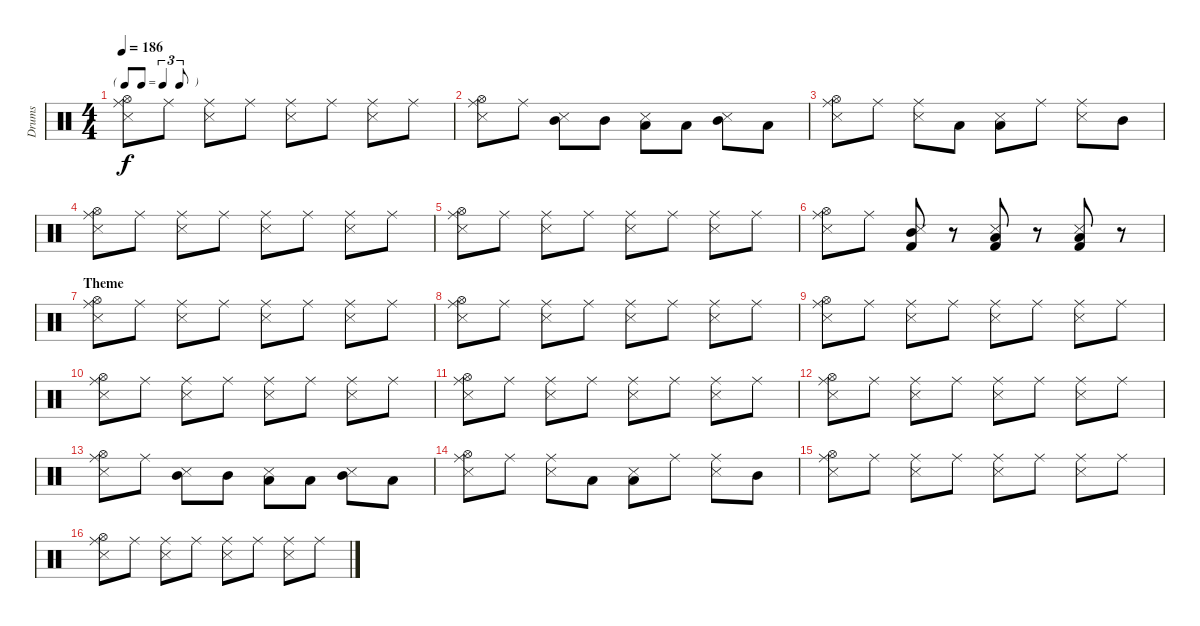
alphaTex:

\track ("Drums" "Drums") {instrument percussion}
\staff {score}
\articulation defaults
\ts (4 4)
\tf triplet8th
\tempo 186
\clef neutral
\ks c
("Hi-Hat (open)" "Ride (middle)" "Snare (side stick) 3").8{dy f} "Ride (middle)".8 ("Ride (middle)" "Snare (side stick) 3").8 "Ride (middle)".8 ("Ride (middle)" "Snare (side stick) 3").8 "Ride (middle)".8 ("Ride (middle)" "Snare (side stick) 3").8 "Ride (middle)".8 |
("Hi-Hat (open)" "Ride (middle)" "Snare (side stick) 3").8 "Ride (middle)".8 ("Mid Tom (hit)" "Snare (side stick) 3").8 "Mid Tom (hit)".8 ("Low Tom (hit)" "Snare (side stick) 3").8 "Low Tom (hit)".8 ("Mid Tom (hit)" "Snare (side stick) 3").8 "Low Tom (hit)".8 |
("Hi-Hat (open)" "Ride (middle)" "Snare (side stick) 3").8 "Ride (middle)".8 ("Ride (middle)" "Snare (side stick) 3").8 "Low Tom (hit)".8 ("Low Tom (hit)" "Snare (side stick) 3").8 "Ride (middle)".8 ("Ride (middle)" "Snare (side stick) 3").8 "Mid Tom (hit)".8 |
("Hi-Hat (open)" "Ride (middle)" "Snare (side stick) 3").8 "Ride (middle)".8 ("Ride (middle)" "Snare (side stick) 3").8 "Ride (middle)".8 ("Ride (middle)" "Snare (side stick) 3").8 "Ride (middle)".8 ("Ride (middle)" "Snare (side stick) 3").8 "Ride (middle)".8 |
("Hi-Hat (open)" "Ride (middle)" "Snare (side stick) 3").8 "Ride (middle)".8 ("Ride (middle)" "Snare (side stick) 3").8 "Ride (middle)".8 ("Ride (middle)" "Snare (side stick) 3").8 "Ride (middle)".8 ("Ride (middle)" "Snare (side stick) 3").8 "Ride (middle)".8 |
("Hi-Hat (open)" "Ride (middle)" "Snare (side stick) 3").8 "Ride (middle)".8 ("Mid Tom (hit)" "Snare (side stick) 3" "Kick (hit) 2").8 r.8 ("Low Tom (hit)" "Snare (side stick) 3" "Kick (hit) 2").8 r.8 ("Low Tom (hit)" "Snare (side stick) 3" "Kick (hit) 2").8 r.8 |
\section ("" "Theme")
("Hi-Hat (open)" "Ride (middle)" "Snare (side stick) 3").8 "Ride (middle)".8 ("Ride (middle)" "Snare (side stick) 3").8 "Ride (middle)".8 ("Ride (middle)" "Snare (side stick) 3").8 "Ride (middle)".8 ("Ride (middle)" "Snare (side stick) 3").8 "Ride (middle)".8 |
("Hi-Hat (open)" "Ride (middle)" "Snare (side stick) 3").8 "Ride (middle)".8 ("Ride (middle)" "Snare (side stick) 3").8 "Ride (middle)".8 ("Ride (middle)" "Snare (side stick) 3").8 "Ride (middle)".8 ("Ride (middle)" "Snare (side stick) 3").8 "Ride (middle)".8 |
("Hi-Hat (open)" "Ride (middle)" "Snare (side stick) 3").8 "Ride (middle)".8 ("Ride (middle)" "Snare (side stick) 3").8 "Ride (middle)".8 ("Ride (middle)" "Snare (side stick) 3").8 "Ride (middle)".8 ("Ride (middle)" "Snare (side stick) 3").8 "Ride (middle)".8 |
("Hi-Hat (open)" "Ride (middle)" "Snare (side stick) 3").8 "Ride (middle)".8 ("Ride (middle)" "Snare (side stick) 3").8 "Ride (middle)".8 ("Ride (middle)" "Snare (side stick) 3").8 "Ride (middle)".8 ("Ride (middle)" "Snare (side stick) 3").8 "Ride (middle)".8 |
("Hi-Hat (open)" "Ride (middle)" "Snare (side stick) 3").8 "Ride (middle)".8 ("Ride (middle)" "Snare (side stick) 3").8 "Ride (middle)".8 ("Ride (middle)" "Snare (side stick) 3").8 "Ride (middle)".8 ("Ride (middle)" "Snare (side stick) 3").8 "Ride (middle)".8 |
("Hi-Hat (open)" "Ride (middle)" "Snare (side stick) 3").8 "Ride (middle)".8 ("Ride (middle)" "Snare (side stick) 3").8 "Ride (middle)".8 ("Ride (middle)" "Snare (side stick) 3").8 "Ride (middle)".8 ("Ride (middle)" "Snare (side stick) 3").8 "Ride (middle)".8 |
("Hi-Hat (open)" "Ride (middle)" "Snare (side stick) 3").8 "Ride (middle)".8 ("Mid Tom (hit)" "Snare (side stick) 3").8 "Mid Tom (hit)".8 ("Low Tom (hit)" "Snare (side stick) 3").8 "Low Tom (hit)".8 ("Mid Tom (hit)" "Snare (side stick) 3").8 "Low Tom (hit)".8 |
("Hi-Hat (open)" "Ride (middle)" "Snare (side stick) 3").8 "Ride (middle)".8 ("Ride (middle)" "Snare (side stick) 3").8 "Low Tom (hit)".8 ("Low Tom (hit)" "Snare (side stick) 3").8 "Ride (middle)".8 ("Ride (middle)" "Snare (side stick) 3").8 "Mid Tom (hit)".8 |
("Hi-Hat (open)" "Ride (middle)" "Snare (side stick) 3").8 "Ride (middle)".8 ("Ride (middle)" "Snare (side stick) 3").8 "Ride (middle)".8 ("Ride (middle)" "Snare (side stick) 3").8 "Ride (middle)".8 ("Ride (middle)" "Snare (side stick) 3").8 "Ride (middle)".8 |
("Hi-Hat (open)" "Ride (middle)" "Snare (side stick) 3").8 "Ride (middle)".8 ("Ride (middle)" "Snare (side stick) 3").8 "Ride (middle)".8 ("Ride (middle)" "Snare (side stick) 3").8 "Ride (middle)".8 ("Ride (middle)" "Snare (side stick) 3").8 "Ride (middle)".8
